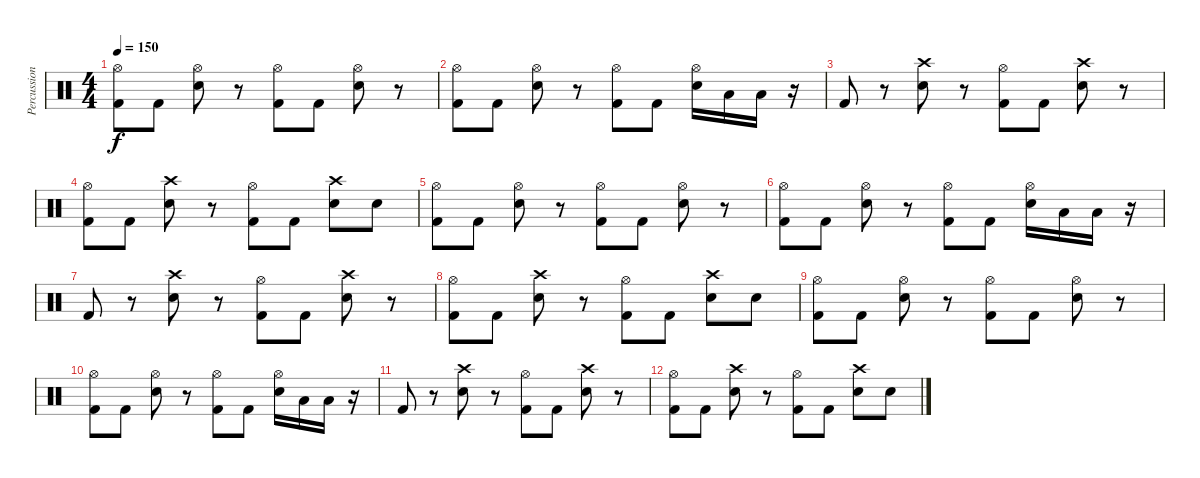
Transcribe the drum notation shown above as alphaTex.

\track ("Percussion" "Percussion") {instrument percussion}
\staff {score}
\articulation defaults
\ts (4 4)
\tempo 150
\clef neutral
\ks c
("Hi-Hat (open)" "Kick (hit) 2").8{dy f} "Kick (hit) 2".8 ("Hi-Hat (open)" "Snare (hit) 2").8 r.8 ("Hi-Hat (open)" "Kick (hit) 2").8 "Kick (hit) 2".8 ("Hi-Hat (open)" "Snare (hit) 2").8 r.8 |
("Hi-Hat (open)" "Kick (hit) 2").8 "Kick (hit) 2".8 ("Hi-Hat (open)" "Snare (hit) 2").8 r.8 ("Hi-Hat (open)" "Kick (hit) 2").8 "Kick (hit) 2".8 ("Hi-Hat (open)" "Snare (hit) 2").16 "Low Tom (hit)".16 "Low Tom (hit)".16 r.16 |
"Kick (hit) 2".8 r.8 ("Crash high (hit)" "Snare (hit) 2").8 r.8 ("Hi-Hat (open)" "Kick (hit) 2").8 "Kick (hit) 2".8 ("Crash high (hit)" "Snare (hit) 2").8 r.8 |
("Hi-Hat (open)" "Kick (hit) 2").8 "Kick (hit) 2".8 ("Crash high (hit)" "Snare (hit) 2").8 r.8 ("Hi-Hat (open)" "Kick (hit) 2").8 "Kick (hit) 2".8 ("Crash high (hit)" "Snare (hit) 2").8 "Snare (hit) 2".8 |
("Hi-Hat (open)" "Kick (hit) 2").8 "Kick (hit) 2".8 ("Hi-Hat (open)" "Snare (hit) 2").8 r.8 ("Hi-Hat (open)" "Kick (hit) 2").8 "Kick (hit) 2".8 ("Hi-Hat (open)" "Snare (hit) 2").8 r.8 |
("Hi-Hat (open)" "Kick (hit) 2").8 "Kick (hit) 2".8 ("Hi-Hat (open)" "Snare (hit) 2").8 r.8 ("Hi-Hat (open)" "Kick (hit) 2").8 "Kick (hit) 2".8 ("Hi-Hat (open)" "Snare (hit) 2").16 "Low Tom (hit)".16 "Low Tom (hit)".16 r.16 |
"Kick (hit) 2".8 r.8 ("Crash high (hit)" "Snare (hit) 2").8 r.8 ("Hi-Hat (open)" "Kick (hit) 2").8 "Kick (hit) 2".8 ("Crash high (hit)" "Snare (hit) 2").8 r.8 |
("Hi-Hat (open)" "Kick (hit) 2").8 "Kick (hit) 2".8 ("Crash high (hit)" "Snare (hit) 2").8 r.8 ("Hi-Hat (open)" "Kick (hit) 2").8 "Kick (hit) 2".8 ("Crash high (hit)" "Snare (hit) 2").8 "Snare (hit) 2".8 |
("Hi-Hat (open)" "Kick (hit) 2").8 "Kick (hit) 2".8 ("Hi-Hat (open)" "Snare (hit) 2").8 r.8 ("Hi-Hat (open)" "Kick (hit) 2").8 "Kick (hit) 2".8 ("Hi-Hat (open)" "Snare (hit) 2").8 r.8 |
("Hi-Hat (open)" "Kick (hit) 2").8 "Kick (hit) 2".8 ("Hi-Hat (open)" "Snare (hit) 2").8 r.8 ("Hi-Hat (open)" "Kick (hit) 2").8 "Kick (hit) 2".8 ("Hi-Hat (open)" "Snare (hit) 2").16 "Low Tom (hit)".16 "Low Tom (hit)".16 r.16 |
"Kick (hit) 2".8 r.8 ("Crash high (hit)" "Snare (hit) 2").8 r.8 ("Hi-Hat (open)" "Kick (hit) 2").8 "Kick (hit) 2".8 ("Crash high (hit)" "Snare (hit) 2").8 r.8 |
("Hi-Hat (open)" "Kick (hit) 2").8 "Kick (hit) 2".8 ("Crash high (hit)" "Snare (hit) 2").8 r.8 ("Hi-Hat (open)" "Kick (hit) 2").8 "Kick (hit) 2".8 ("Crash high (hit)" "Snare (hit) 2").8 "Snare (hit) 2".8
